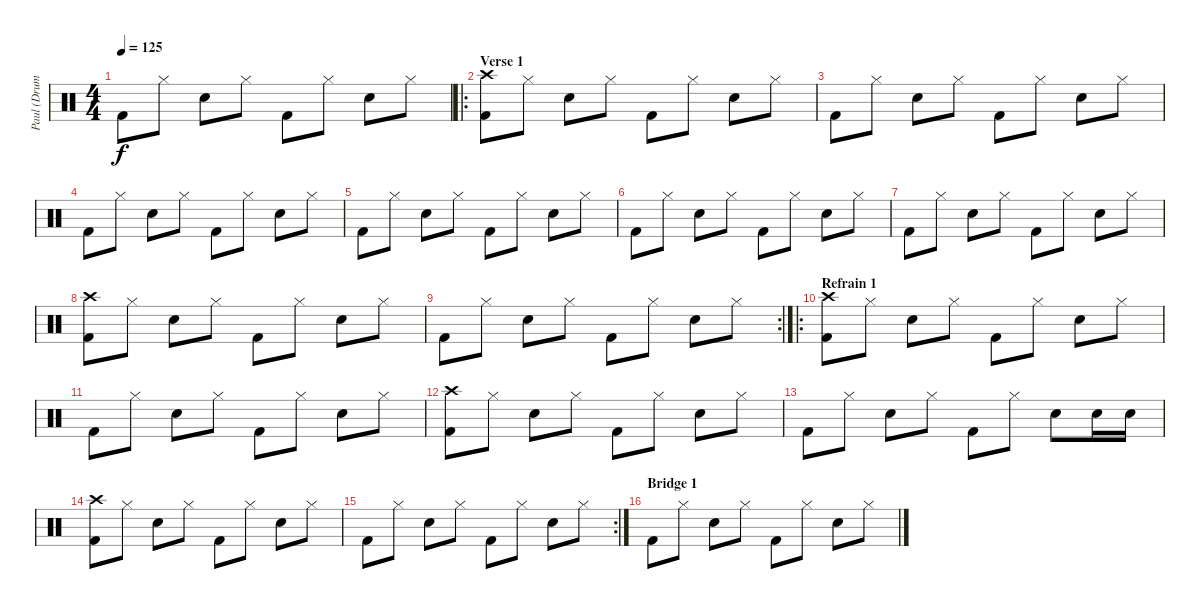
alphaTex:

\track ("Paul (Drums)" "Paul (Drum") {instrument percussion}
\staff {score}
\articulation defaults
\ts (4 4)
\tempo 125
\clef neutral
\ks c "Kick (hit) 2".8{dy f} "Hi-Hat (closed)".8 "Snare (hit) 2".8 "Hi-Hat (closed)".8 "Kick (hit) 2".8 "Hi-Hat (closed)".8 "Snare (hit) 2".8 "Hi-Hat (closed)".8
|
\ro
\section ("" "Verse 1")
("Crash high (hit)" "Kick (hit) 2").8 "Hi-Hat (closed)".8 "Snare (hit) 2".8 "Hi-Hat (closed)".8 "Kick (hit) 2".8 "Hi-Hat (closed)".8 "Snare (hit) 2".8 "Hi-Hat (closed)".8 |
"Kick (hit) 2".8 "Hi-Hat (closed)".8 "Snare (hit) 2".8 "Hi-Hat (closed)".8 "Kick (hit) 2".8 "Hi-Hat (closed)".8 "Snare (hit) 2".8 "Hi-Hat (closed)".8 |
"Kick (hit) 2".8 "Hi-Hat (closed)".8 "Snare (hit) 2".8 "Hi-Hat (closed)".8 "Kick (hit) 2".8 "Hi-Hat (closed)".8 "Snare (hit) 2".8 "Hi-Hat (closed)".8 |
"Kick (hit) 2".8 "Hi-Hat (closed)".8 "Snare (hit) 2".8 "Hi-Hat (closed)".8 "Kick (hit) 2".8 "Hi-Hat (closed)".8 "Snare (hit) 2".8 "Hi-Hat (closed)".8 |
"Kick (hit) 2".8 "Hi-Hat (closed)".8 "Snare (hit) 2".8 "Hi-Hat (closed)".8 "Kick (hit) 2".8 "Hi-Hat (closed)".8 "Snare (hit) 2".8 "Hi-Hat (closed)".8 |
"Kick (hit) 2".8 "Hi-Hat (closed)".8 "Snare (hit) 2".8 "Hi-Hat (closed)".8 "Kick (hit) 2".8 "Hi-Hat (closed)".8 "Snare (hit) 2".8 "Hi-Hat (closed)".8 |
("Crash high (hit)" "Kick (hit) 2").8 "Hi-Hat (closed)".8 "Snare (hit) 2".8 "Hi-Hat (closed)".8 "Kick (hit) 2".8 "Hi-Hat (closed)".8 "Snare (hit) 2".8 "Hi-Hat (closed)".8 |
\rc 2 "Kick (hit) 2".8 "Hi-Hat (closed)".8 "Snare (hit) 2".8 "Hi-Hat (closed)".8 "Kick (hit) 2".8 "Hi-Hat (closed)".8 "Snare (hit) 2".8 "Hi-Hat (closed)".8
|
\ro
\section ("" "Refrain 1")
("Crash high (hit)" "Kick (hit) 2").8 "Hi-Hat (closed)".8 "Snare (hit) 2".8 "Hi-Hat (closed)".8 "Kick (hit) 2".8 "Hi-Hat (closed)".8 "Snare (hit) 2".8 "Hi-Hat (closed)".8 |
"Kick (hit) 2".8 "Hi-Hat (closed)".8 "Snare (hit) 2".8 "Hi-Hat (closed)".8 "Kick (hit) 2".8 "Hi-Hat (closed)".8 "Snare (hit) 2".8 "Hi-Hat (closed)".8 |
("Crash high (hit)" "Kick (hit) 2").8 "Hi-Hat (closed)".8 "Snare (hit) 2".8 "Hi-Hat (closed)".8 "Kick (hit) 2".8 "Hi-Hat (closed)".8 "Snare (hit) 2".8 "Hi-Hat (closed)".8 |
"Kick (hit) 2".8 "Hi-Hat (closed)".8 "Snare (hit) 2".8 "Hi-Hat (closed)".8 "Kick (hit) 2".8 "Hi-Hat (closed)".8 "Snare (hit) 2".8 "Snare (hit) 2".16 "Snare (hit) 2".16 |
("Crash high (hit)" "Kick (hit) 2").8 "Hi-Hat (closed)".8 "Snare (hit) 2".8 "Hi-Hat (closed)".8 "Kick (hit) 2".8 "Hi-Hat (closed)".8 "Snare (hit) 2".8 "Hi-Hat (closed)".8 |
\rc 2 "Kick (hit) 2".8 "Hi-Hat (closed)".8 "Snare (hit) 2".8 "Hi-Hat (closed)".8 "Kick (hit) 2".8 "Hi-Hat (closed)".8 "Snare (hit) 2".8 "Hi-Hat (closed)".8
|
\section ("" "Bridge 1")
"Kick (hit) 2".8 "Hi-Hat (closed)".8 "Snare (hit) 2".8 "Hi-Hat (closed)".8 "Kick (hit) 2".8 "Hi-Hat (closed)".8 "Snare (hit) 2".8 "Hi-Hat (closed)".8
